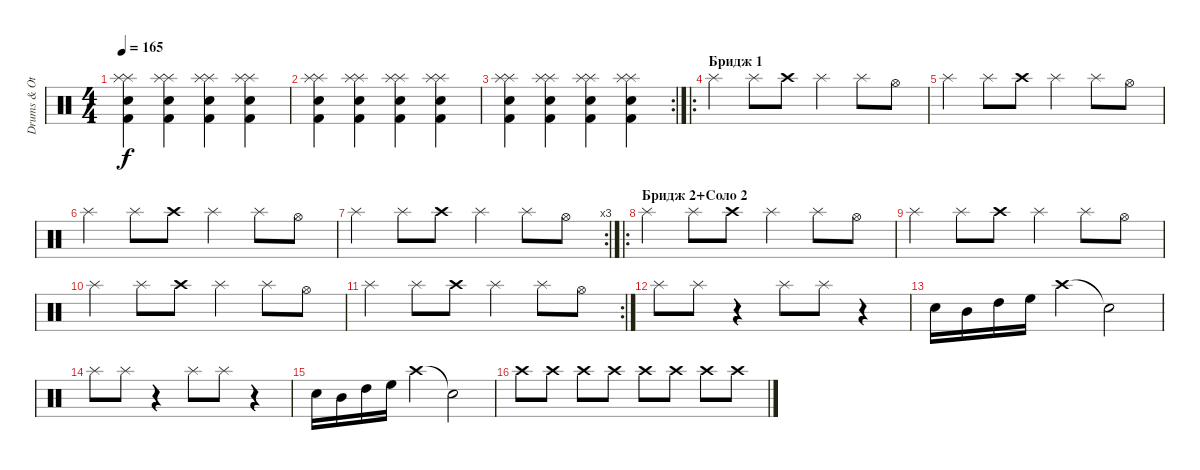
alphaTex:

\track ("Drums & Other percussion" "Drums & Ot") {instrument percussion}
\staff {score}
\articulation defaults
\ts (4 4)
\tempo 165
\clef neutral
\ks c
("Splash (hit)" "Splash (hit)" "Electric Snare (hit)" "Kick (hit) 2").4{dy f} ("Splash (hit)" "Splash (hit)" "Electric Snare (hit)" "Kick (hit) 2").4 ("Splash (hit)" "Splash (hit)" "Electric Snare (hit)" "Kick (hit) 2").4 ("Splash (hit)" "Splash (hit)" "Electric Snare (hit)" "Kick (hit) 2").4 |
("Splash (hit)" "Splash (hit)" "Electric Snare (hit)" "Kick (hit) 2").4 ("Splash (hit)" "Splash (hit)" "Electric Snare (hit)" "Kick (hit) 2").4 ("Splash (hit)" "Splash (hit)" "Electric Snare (hit)" "Kick (hit) 2").4 ("Splash (hit)" "Splash (hit)" "Electric Snare (hit)" "Kick (hit) 2").4 |
\rc 2
("Splash (hit)" "Splash (hit)" "Electric Snare (hit)" "Kick (hit) 2").4 ("Splash (hit)" "Splash (hit)" "Electric Snare (hit)" "Kick (hit) 2").4 ("Splash (hit)" "Splash (hit)" "Electric Snare (hit)" "Kick (hit) 2").4 ("Splash (hit)" "Splash (hit)" "Electric Snare (hit)" "Kick (hit) 2").4 |
\ro
\section ("" "Бридж 1")
"Splash (hit)".4 "Splash (hit)".8 "Crash high (hit)".8 "Splash (hit)".4 "Splash (hit)".8 "Hi-Hat (open)".8 |
"Splash (hit)".4 "Splash (hit)".8 "Crash high (hit)".8 "Splash (hit)".4 "Splash (hit)".8 "Hi-Hat (open)".8 |
"Splash (hit)".4 "Splash (hit)".8 "Crash high (hit)".8 "Splash (hit)".4 "Splash (hit)".8 "Hi-Hat (open)".8 |
\rc 3 "Splash (hit)".4 "Splash (hit)".8 "Crash high (hit)".8 "Splash (hit)".4 "Splash (hit)".8 "Hi-Hat (open)".8
|
\ro
\section ("" "Бридж 2+Соло 2")
"Splash (hit)".4 "Splash (hit)".8 "Crash high (hit)".8 "Splash (hit)".4 "Splash (hit)".8 "Hi-Hat (open)".8 |
"Splash (hit)".4 "Splash (hit)".8 "Crash high (hit)".8 "Splash (hit)".4 "Splash (hit)".8 "Hi-Hat (open)".8 |
"Splash (hit)".4 "Splash (hit)".8 "Crash high (hit)".8 "Splash (hit)".4 "Splash (hit)".8 "Hi-Hat (open)".8 |
\rc 2 "Splash (hit)".4 "Splash (hit)".8 "Crash high (hit)".8 "Splash (hit)".4 "Splash (hit)".8 "Hi-Hat (open)".8
|
"Splash (hit)".8 "Splash (hit)".8 r.4 "Splash (hit)".8 "Splash (hit)".8 r.4 |
"Electric Snare (hit)".16 "Mid Tom (hit)".16 "High Tom (hit)".16 "High Floor Tom (hit)".16 "Crash high (hit)".4 "Snare (hit)"{t}.2 |
"Splash (hit)".8 "Splash (hit)".8 r.4 "Splash (hit)".8 "Splash (hit)".8 r.4 |
"Electric Snare (hit)".16 "Mid Tom (hit)".16 "High Tom (hit)".16 "High Floor Tom (hit)".16 "Crash high (hit)".4 "Snare (hit)"{t}.2 |
"Crash high (hit)".8 "Crash high (hit)".8 "Crash high (hit)".8 "Crash high (hit)".8 "Crash high (hit)".8 "Crash high (hit)".8 "Crash high (hit)".8 "Crash high (hit)".8
